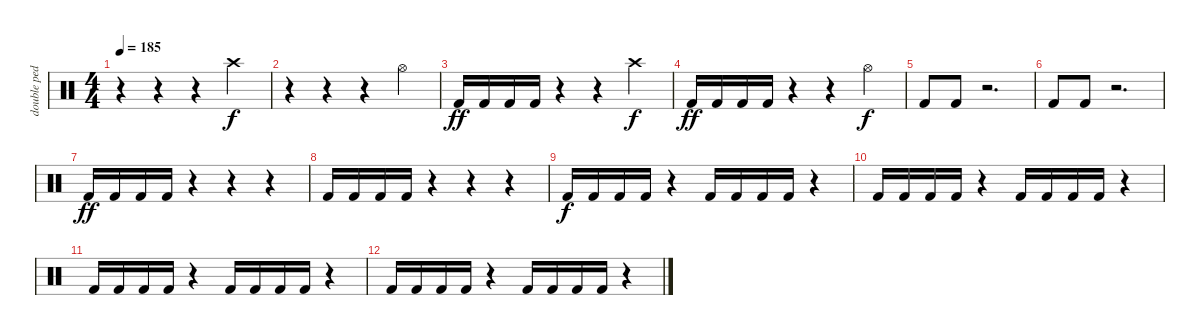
\track ("double pedale" "double ped") {instrument percussion}
\staff {score}
\articulation defaults
\ts (4 4)
\tempo 185
\clef neutral
\ks c
r.4{dy ff} r.4 r.4 "Crash high (hit)".4{dy f} |
r.4 r.4 r.4 "Hi-Hat (open)".4 |
"Kick (hit) 2".16{dy ff} "Kick (hit) 2".16 "Kick (hit) 2".16 "Kick (hit) 2".16 r.4 r.4 "Crash high (hit)".4{dy f} |
"Kick (hit) 2".16{dy ff} "Kick (hit) 2".16 "Kick (hit) 2".16 "Kick (hit) 2".16 r.4 r.4 "Hi-Hat (open)".4{dy f} |
"Kick (hit) 2".8 "Kick (hit) 2".8 r.2{d} |
"Kick (hit) 2".8 "Kick (hit) 2".8 r.2{d} |
"Kick (hit) 2".16{dy ff} "Kick (hit) 2".16 "Kick (hit) 2".16 "Kick (hit) 2".16 r.4 r.4 r.4 |
"Kick (hit) 2".16 "Kick (hit) 2".16 "Kick (hit) 2".16 "Kick (hit) 2".16 r.4 r.4 r.4 |
"Kick (hit) 2".16{dy f} "Kick (hit) 2".16 "Kick (hit) 2".16 "Kick (hit) 2".16 r.4 "Kick (hit) 2".16 "Kick (hit) 2".16 "Kick (hit) 2".16 "Kick (hit) 2".16 r.4 |
"Kick (hit) 2".16 "Kick (hit) 2".16 "Kick (hit) 2".16 "Kick (hit) 2".16 r.4 "Kick (hit) 2".16 "Kick (hit) 2".16 "Kick (hit) 2".16 "Kick (hit) 2".16 r.4 |
"Kick (hit) 2".16 "Kick (hit) 2".16 "Kick (hit) 2".16 "Kick (hit) 2".16 r.4 "Kick (hit) 2".16 "Kick (hit) 2".16 "Kick (hit) 2".16 "Kick (hit) 2".16 r.4 |
"Kick (hit) 2".16 "Kick (hit) 2".16 "Kick (hit) 2".16 "Kick (hit) 2".16 r.4 "Kick (hit) 2".16 "Kick (hit) 2".16 "Kick (hit) 2".16 "Kick (hit) 2".16 r.4
